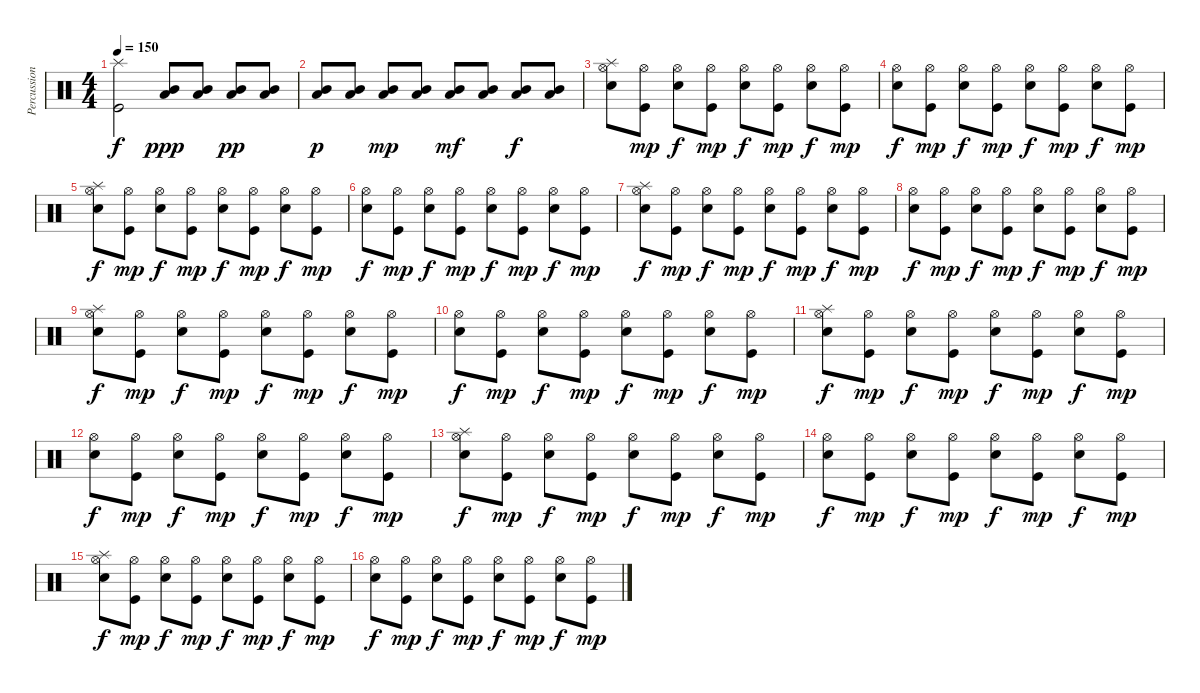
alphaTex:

\track ("Percussions" "Percussion") {instrument percussion}
\staff {score}
\articulation defaults
\ts (4 4)
\tempo 150
\clef neutral
\ks c
("Splash (hit)" "Kick (hit)").2{dy f} ("Mid Tom (hit)" "Low Tom (hit)").8{dy ppp} ("Mid Tom (hit)" "Low Tom (hit)").8 ("Mid Tom (hit)" "Low Tom (hit)").8{dy pp} ("Mid Tom (hit)" "Low Tom (hit)").8 |
("Mid Tom (hit)" "Low Tom (hit)").8{dy p} ("Mid Tom (hit)" "Low Tom (hit)").8 ("Mid Tom (hit)" "Low Tom (hit)").8{dy mp} ("Mid Tom (hit)" "Low Tom (hit)").8 ("Mid Tom (hit)" "Low Tom (hit)").8{dy mf} ("Mid Tom (hit)" "Low Tom (hit)").8 ("Mid Tom (hit)" "Low Tom (hit)").8{dy f} ("Mid Tom (hit)" "Low Tom (hit)").8 |
("Splash (hit)" "Hi-Hat (open)" "Electric Snare (hit)").8 ("Hi-Hat (open)" "Kick (hit)").8{dy mp} ("Hi-Hat (open)" "Electric Snare (hit)").8{dy f} ("Hi-Hat (open)" "Kick (hit)").8{dy mp} ("Hi-Hat (open)" "Electric Snare (hit)").8{dy f} ("Hi-Hat (open)" "Kick (hit)").8{dy mp} ("Hi-Hat (open)" "Electric Snare (hit)").8{dy f} ("Hi-Hat (open)" "Kick (hit)").8{dy mp} |
("Hi-Hat (open)" "Electric Snare (hit)").8{dy f} ("Hi-Hat (open)" "Kick (hit)").8{dy mp} ("Hi-Hat (open)" "Electric Snare (hit)").8{dy f} ("Hi-Hat (open)" "Kick (hit)").8{dy mp} ("Hi-Hat (open)" "Electric Snare (hit)").8{dy f} ("Hi-Hat (open)" "Kick (hit)").8{dy mp} ("Hi-Hat (open)" "Electric Snare (hit)").8{dy f} ("Hi-Hat (open)" "Kick (hit)").8{dy mp} |
("Splash (hit)" "Hi-Hat (open)" "Electric Snare (hit)").8{dy f} ("Hi-Hat (open)" "Kick (hit)").8{dy mp} ("Hi-Hat (open)" "Electric Snare (hit)").8{dy f} ("Hi-Hat (open)" "Kick (hit)").8{dy mp} ("Hi-Hat (open)" "Electric Snare (hit)").8{dy f} ("Hi-Hat (open)" "Kick (hit)").8{dy mp} ("Hi-Hat (open)" "Electric Snare (hit)").8{dy f} ("Hi-Hat (open)" "Kick (hit)").8{dy mp} |
("Hi-Hat (open)" "Electric Snare (hit)").8{dy f} ("Hi-Hat (open)" "Kick (hit)").8{dy mp} ("Hi-Hat (open)" "Electric Snare (hit)").8{dy f} ("Hi-Hat (open)" "Kick (hit)").8{dy mp} ("Hi-Hat (open)" "Electric Snare (hit)").8{dy f} ("Hi-Hat (open)" "Kick (hit)").8{dy mp} ("Hi-Hat (open)" "Electric Snare (hit)").8{dy f} ("Hi-Hat (open)" "Kick (hit)").8{dy mp} |
("Splash (hit)" "Hi-Hat (open)" "Electric Snare (hit)").8{dy f} ("Hi-Hat (open)" "Kick (hit)").8{dy mp} ("Hi-Hat (open)" "Electric Snare (hit)").8{dy f} ("Hi-Hat (open)" "Kick (hit)").8{dy mp} ("Hi-Hat (open)" "Electric Snare (hit)").8{dy f} ("Hi-Hat (open)" "Kick (hit)").8{dy mp} ("Hi-Hat (open)" "Electric Snare (hit)").8{dy f} ("Hi-Hat (open)" "Kick (hit)").8{dy mp} |
("Hi-Hat (open)" "Electric Snare (hit)").8{dy f} ("Hi-Hat (open)" "Kick (hit)").8{dy mp} ("Hi-Hat (open)" "Electric Snare (hit)").8{dy f} ("Hi-Hat (open)" "Kick (hit)").8{dy mp} ("Hi-Hat (open)" "Electric Snare (hit)").8{dy f} ("Hi-Hat (open)" "Kick (hit)").8{dy mp} ("Hi-Hat (open)" "Electric Snare (hit)").8{dy f} ("Hi-Hat (open)" "Kick (hit)").8{dy mp} |
("Splash (hit)" "Hi-Hat (open)" "Electric Snare (hit)").8{dy f} ("Hi-Hat (open)" "Kick (hit)").8{dy mp} ("Hi-Hat (open)" "Electric Snare (hit)").8{dy f} ("Hi-Hat (open)" "Kick (hit)").8{dy mp} ("Hi-Hat (open)" "Electric Snare (hit)").8{dy f} ("Hi-Hat (open)" "Kick (hit)").8{dy mp} ("Hi-Hat (open)" "Electric Snare (hit)").8{dy f} ("Hi-Hat (open)" "Kick (hit)").8{dy mp} |
("Hi-Hat (open)" "Electric Snare (hit)").8{dy f} ("Hi-Hat (open)" "Kick (hit)").8{dy mp} ("Hi-Hat (open)" "Electric Snare (hit)").8{dy f} ("Hi-Hat (open)" "Kick (hit)").8{dy mp} ("Hi-Hat (open)" "Electric Snare (hit)").8{dy f} ("Hi-Hat (open)" "Kick (hit)").8{dy mp} ("Hi-Hat (open)" "Electric Snare (hit)").8{dy f} ("Hi-Hat (open)" "Kick (hit)").8{dy mp} |
("Splash (hit)" "Hi-Hat (open)" "Electric Snare (hit)").8{dy f} ("Hi-Hat (open)" "Kick (hit)").8{dy mp} ("Hi-Hat (open)" "Electric Snare (hit)").8{dy f} ("Hi-Hat (open)" "Kick (hit)").8{dy mp} ("Hi-Hat (open)" "Electric Snare (hit)").8{dy f} ("Hi-Hat (open)" "Kick (hit)").8{dy mp} ("Hi-Hat (open)" "Electric Snare (hit)").8{dy f} ("Hi-Hat (open)" "Kick (hit)").8{dy mp} |
("Hi-Hat (open)" "Electric Snare (hit)").8{dy f} ("Hi-Hat (open)" "Kick (hit)").8{dy mp} ("Hi-Hat (open)" "Electric Snare (hit)").8{dy f} ("Hi-Hat (open)" "Kick (hit)").8{dy mp} ("Hi-Hat (open)" "Electric Snare (hit)").8{dy f} ("Hi-Hat (open)" "Kick (hit)").8{dy mp} ("Hi-Hat (open)" "Electric Snare (hit)").8{dy f} ("Hi-Hat (open)" "Kick (hit)").8{dy mp} |
("Splash (hit)" "Hi-Hat (open)" "Electric Snare (hit)").8{dy f} ("Hi-Hat (open)" "Kick (hit)").8{dy mp} ("Hi-Hat (open)" "Electric Snare (hit)").8{dy f} ("Hi-Hat (open)" "Kick (hit)").8{dy mp} ("Hi-Hat (open)" "Electric Snare (hit)").8{dy f} ("Hi-Hat (open)" "Kick (hit)").8{dy mp} ("Hi-Hat (open)" "Electric Snare (hit)").8{dy f} ("Hi-Hat (open)" "Kick (hit)").8{dy mp} |
("Hi-Hat (open)" "Electric Snare (hit)").8{dy f} ("Hi-Hat (open)" "Kick (hit)").8{dy mp} ("Hi-Hat (open)" "Electric Snare (hit)").8{dy f} ("Hi-Hat (open)" "Kick (hit)").8{dy mp} ("Hi-Hat (open)" "Electric Snare (hit)").8{dy f} ("Hi-Hat (open)" "Kick (hit)").8{dy mp} ("Hi-Hat (open)" "Electric Snare (hit)").8{dy f} ("Hi-Hat (open)" "Kick (hit)").8{dy mp} |
("Splash (hit)" "Hi-Hat (open)" "Electric Snare (hit)").8{dy f} ("Hi-Hat (open)" "Kick (hit)").8{dy mp} ("Hi-Hat (open)" "Electric Snare (hit)").8{dy f} ("Hi-Hat (open)" "Kick (hit)").8{dy mp} ("Hi-Hat (open)" "Electric Snare (hit)").8{dy f} ("Hi-Hat (open)" "Kick (hit)").8{dy mp} ("Hi-Hat (open)" "Electric Snare (hit)").8{dy f} ("Hi-Hat (open)" "Kick (hit)").8{dy mp} |
("Hi-Hat (open)" "Electric Snare (hit)").8{dy f} ("Hi-Hat (open)" "Kick (hit)").8{dy mp} ("Hi-Hat (open)" "Electric Snare (hit)").8{dy f} ("Hi-Hat (open)" "Kick (hit)").8{dy mp} ("Hi-Hat (open)" "Electric Snare (hit)").8{dy f} ("Hi-Hat (open)" "Kick (hit)").8{dy mp} ("Hi-Hat (open)" "Electric Snare (hit)").8{dy f} ("Hi-Hat (open)" "Kick (hit)").8{dy mp}
